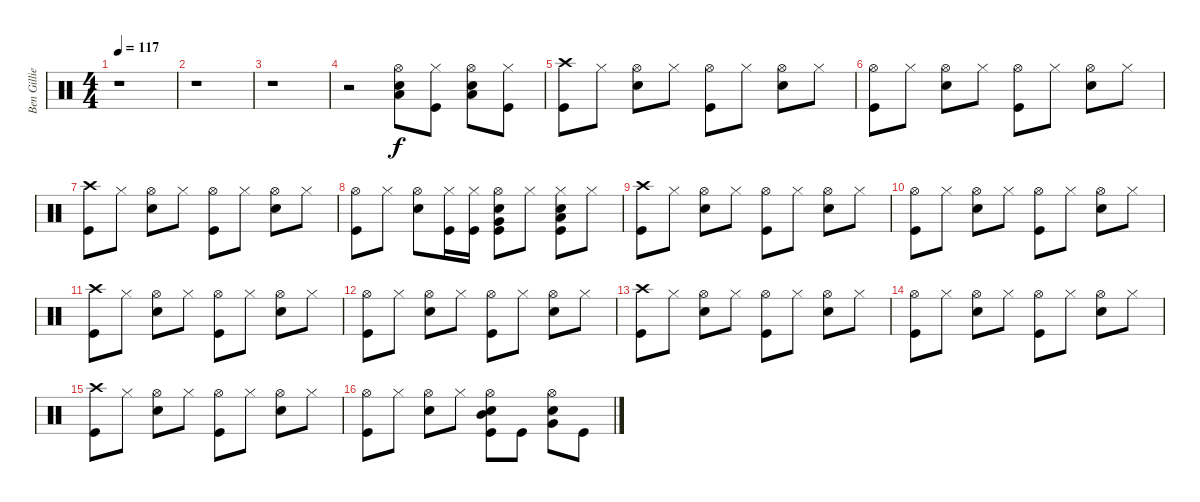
\track ("Ben Gillies" "Ben Gillie") {instrument percussion}
\staff {score}
\articulation defaults
\ts (4 4)
\tempo 117
\clef neutral
\ks c
r.1{dy f} |
r.1 |
r.1 |
r.2 ("Hi-Hat (open)" "Snare (hit) 2" "Low Tom (hit)").8 ("Hi-Hat (closed)" "Kick (hit)").8 ("Hi-Hat (open)" "Snare (hit) 2" "Low Floor Tom (hit)").8 ("Hi-Hat (closed)" "Kick (hit)").8 |
("Crash high (hit)" "Kick (hit)").8 "Hi-Hat (closed)".8 ("Snare (hit) 2" "Hi-Hat (open)").8 "Hi-Hat (closed)".8 ("Hi-Hat (open)" "Kick (hit)").8 "Hi-Hat (closed)".8 ("Snare (hit) 2" "Hi-Hat (open)").8 "Hi-Hat (closed)".8 |
("Hi-Hat (open)" "Kick (hit)").8 "Hi-Hat (closed)".8 ("Snare (hit) 2" "Hi-Hat (open)").8 "Hi-Hat (closed)".8 ("Hi-Hat (open)" "Kick (hit)").8 "Hi-Hat (closed)".8 ("Snare (hit) 2" "Hi-Hat (open)").8 "Hi-Hat (closed)".8 |
("Crash high (hit)" "Kick (hit)").8 "Hi-Hat (closed)".8 ("Snare (hit) 2" "Hi-Hat (open)").8 "Hi-Hat (closed)".8 ("Hi-Hat (open)" "Kick (hit)").8 "Hi-Hat (closed)".8 ("Snare (hit) 2" "Hi-Hat (open)").8 "Hi-Hat (closed)".8 |
("Hi-Hat (open)" "Kick (hit)").8 "Hi-Hat (closed)".8 ("Snare (hit) 2" "Hi-Hat (open)").8 ("Hi-Hat (closed)" "Kick (hit)").16 ("Hi-Hat (closed)" "Kick (hit)").16 ("Snare (hit) 2" "Hi-Hat (open)" "Kick (hit)" "Very Low Tom (hit)").8 "Hi-Hat (closed)".8 ("Snare (hit) 2" "Hi-Hat (closed)" "Kick (hit)" "Low Floor Tom (hit)").8 "Hi-Hat (closed)".8 |
("Crash high (hit)" "Kick (hit)").8 "Hi-Hat (closed)".8 ("Snare (hit) 2" "Hi-Hat (open)").8 "Hi-Hat (closed)".8 ("Hi-Hat (open)" "Kick (hit)").8 "Hi-Hat (closed)".8 ("Snare (hit) 2" "Hi-Hat (open)").8 "Hi-Hat (closed)".8 |
("Hi-Hat (open)" "Kick (hit)").8 "Hi-Hat (closed)".8 ("Snare (hit) 2" "Hi-Hat (open)").8 "Hi-Hat (closed)".8 ("Hi-Hat (open)" "Kick (hit)").8 "Hi-Hat (closed)".8 ("Snare (hit) 2" "Hi-Hat (open)").8 "Hi-Hat (closed)".8 |
("Crash high (hit)" "Kick (hit)").8 "Hi-Hat (closed)".8 ("Snare (hit) 2" "Hi-Hat (open)").8 "Hi-Hat (closed)".8 ("Hi-Hat (open)" "Kick (hit)").8 "Hi-Hat (closed)".8 ("Snare (hit) 2" "Hi-Hat (open)").8 "Hi-Hat (closed)".8 |
("Hi-Hat (open)" "Kick (hit)").8 "Hi-Hat (closed)".8 ("Snare (hit) 2" "Hi-Hat (open)").8 "Hi-Hat (closed)".8 ("Hi-Hat (open)" "Kick (hit)").8 "Hi-Hat (closed)".8 ("Snare (hit) 2" "Hi-Hat (open)").8 "Hi-Hat (closed)".8 |
("Crash high (hit)" "Kick (hit)").8 "Hi-Hat (closed)".8 ("Snare (hit) 2" "Hi-Hat (open)").8 "Hi-Hat (closed)".8 ("Hi-Hat (open)" "Kick (hit)").8 "Hi-Hat (closed)".8 ("Snare (hit) 2" "Hi-Hat (open)").8 "Hi-Hat (closed)".8 |
("Hi-Hat (open)" "Kick (hit)").8 "Hi-Hat (closed)".8 ("Snare (hit) 2" "Hi-Hat (open)").8 "Hi-Hat (closed)".8 ("Hi-Hat (open)" "Kick (hit)").8 "Hi-Hat (closed)".8 ("Snare (hit) 2" "Hi-Hat (open)").8 "Hi-Hat (closed)".8 |
("Crash high (hit)" "Kick (hit)").8 "Hi-Hat (closed)".8 ("Snare (hit) 2" "Hi-Hat (open)").8 "Hi-Hat (closed)".8 ("Hi-Hat (open)" "Kick (hit)").8 "Hi-Hat (closed)".8 ("Snare (hit) 2" "Hi-Hat (open)").8 "Hi-Hat (closed)".8 |
("Hi-Hat (open)" "Kick (hit)").8 "Hi-Hat (closed)".8 ("Snare (hit) 2" "Hi-Hat (open)").8 "Hi-Hat (closed)".8 ("Mid Tom (hit)" "Snare (hit) 2" "Hi-Hat (open)" "Kick (hit)").8 "Kick (hit)".8 ("Very Low Tom (hit)" "Snare (hit) 2" "Hi-Hat (open)").8 "Kick (hit)".8
